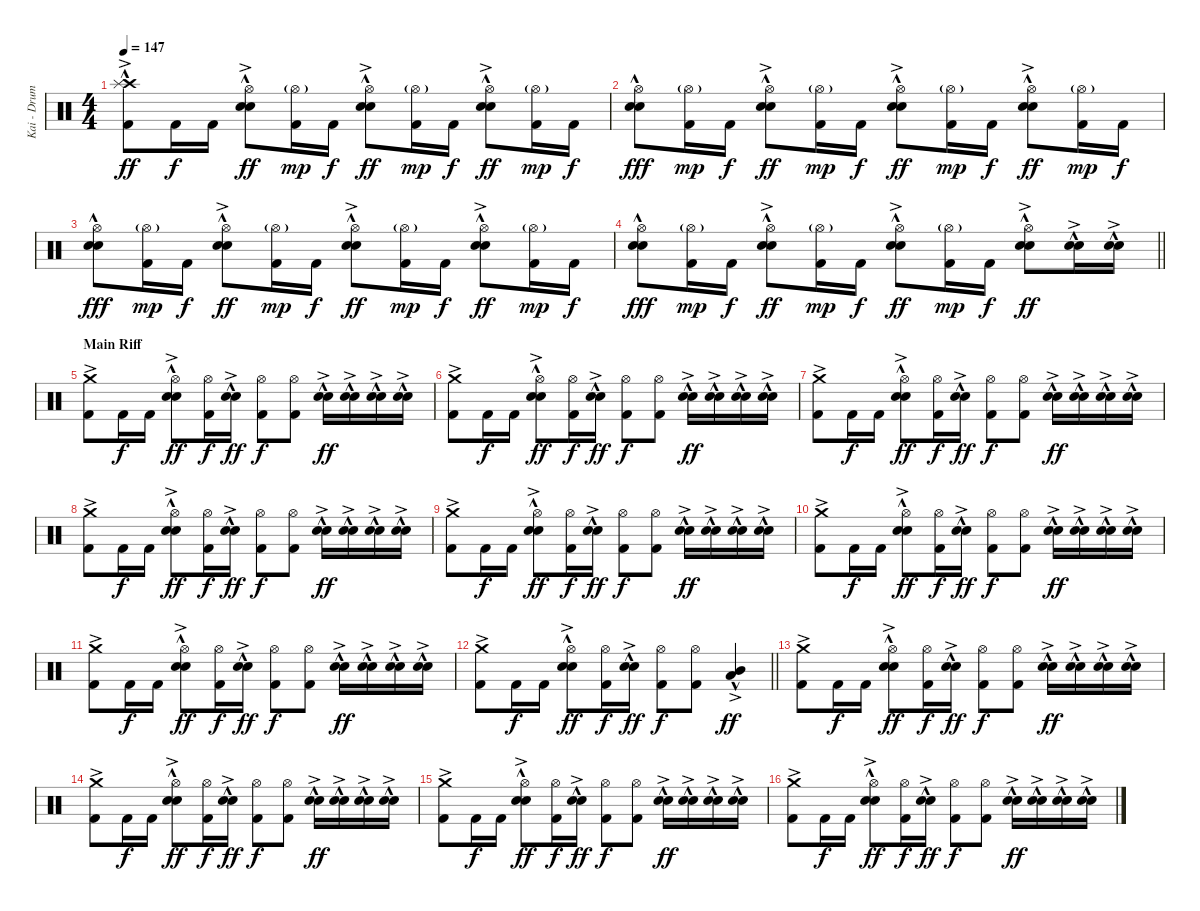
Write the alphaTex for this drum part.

\track ("Kai - Drums" "Kai - Drum") {instrument percussion}
\staff {score}
\articulation defaults
\ts (4 4)
\tempo 147
\clef neutral
\ks c
("Crash high (hit)"{hac} "Splash (hit)"{ac} "Kick (hit) 2").8{dy ff} "Kick (hit) 2".16{dy f} "Kick (hit) 2".16 ("Hi-Hat (open)" "Electric Snare (hit)"{hac} "Snare (hit) 2"{ac}).8{dy ff} ("Hi-Hat (open)"{g} "Kick (hit) 2").16{dy mp} "Kick (hit) 2".16{dy f} ("Hi-Hat (open)" "Electric Snare (hit)"{hac} "Snare (hit) 2"{ac}).8{dy ff} ("Hi-Hat (open)"{g} "Kick (hit) 2").16{dy mp} "Kick (hit) 2".16{dy f} ("Hi-Hat (open)" "Electric Snare (hit)"{hac} "Snare (hit) 2"{ac}).8{dy ff} ("Hi-Hat (open)"{g} "Kick (hit) 2").16{dy mp} "Kick (hit) 2".16{dy f} |
("Hi-Hat (open)" "Electric Snare (hit)"{hac} "Snare (hit) 2").8{dy fff} ("Hi-Hat (open)"{g} "Kick (hit) 2").16{dy mp} "Kick (hit) 2".16{dy f} ("Hi-Hat (open)" "Electric Snare (hit)"{hac} "Snare (hit) 2"{ac}).8{dy ff} ("Hi-Hat (open)"{g} "Kick (hit) 2").16{dy mp} "Kick (hit) 2".16{dy f} ("Hi-Hat (open)" "Electric Snare (hit)"{hac} "Snare (hit) 2"{ac}).8{dy ff} ("Hi-Hat (open)"{g} "Kick (hit) 2").16{dy mp} "Kick (hit) 2".16{dy f} ("Hi-Hat (open)" "Electric Snare (hit)"{hac} "Snare (hit) 2"{ac}).8{dy ff} ("Hi-Hat (open)"{g} "Kick (hit) 2").16{dy mp} "Kick (hit) 2".16{dy f} |
("Hi-Hat (open)" "Electric Snare (hit)"{hac} "Snare (hit) 2").8{dy fff} ("Hi-Hat (open)"{g} "Kick (hit) 2").16{dy mp} "Kick (hit) 2".16{dy f} ("Hi-Hat (open)" "Electric Snare (hit)"{hac} "Snare (hit) 2"{ac}).8{dy ff} ("Hi-Hat (open)"{g} "Kick (hit) 2").16{dy mp} "Kick (hit) 2".16{dy f} ("Hi-Hat (open)" "Electric Snare (hit)"{hac} "Snare (hit) 2"{ac}).8{dy ff} ("Hi-Hat (open)"{g} "Kick (hit) 2").16{dy mp} "Kick (hit) 2".16{dy f} ("Hi-Hat (open)" "Electric Snare (hit)"{hac} "Snare (hit) 2"{ac}).8{dy ff} ("Hi-Hat (open)"{g} "Kick (hit) 2").16{dy mp} "Kick (hit) 2".16{dy f} |
\barLineRight lightlight
("Hi-Hat (open)" "Electric Snare (hit)"{hac} "Snare (hit) 2").8{dy fff} ("Hi-Hat (open)"{g} "Kick (hit) 2").16{dy mp} "Kick (hit) 2".16{dy f} ("Hi-Hat (open)" "Electric Snare (hit)"{hac} "Snare (hit) 2"{ac}).8{dy ff} ("Hi-Hat (open)"{g} "Kick (hit) 2").16{dy mp} "Kick (hit) 2".16{dy f} ("Hi-Hat (open)" "Electric Snare (hit)"{hac} "Snare (hit) 2"{ac}).8{dy ff} ("Hi-Hat (open)"{g} "Kick (hit) 2").16{dy mp} "Kick (hit) 2".16{dy f} ("Hi-Hat (open)" "Electric Snare (hit)"{hac} "Snare (hit) 2"{ac}).8{dy ff} ("Electric Snare (hit)"{hac} "Snare (hit) 2"{ac}).16 ("Electric Snare (hit)"{hac} "Snare (hit) 2"{ac}).16 |
\section ("" "Main Riff")
("Crash medium (hit)"{ac} "Kick (hit) 2").8 "Kick (hit) 2".16{dy f} "Kick (hit) 2".16 ("Hi-Hat (open)" "Electric Snare (hit)"{hac} "Snare (hit) 2"{ac}).8{dy ff} ("Hi-Hat (open)" "Kick (hit) 2").16{dy f} ("Electric Snare (hit)"{hac} "Snare (hit) 2"{ac}).16{dy ff} ("Hi-Hat (open)" "Kick (hit) 2").8{dy f} ("Hi-Hat (open)" "Kick (hit) 2").8 ("Electric Snare (hit)"{hac} "Snare (hit) 2"{ac}).16{dy ff} ("Electric Snare (hit)"{hac} "Snare (hit) 2"{ac}).16 ("Electric Snare (hit)"{hac} "Snare (hit) 2"{ac}).16 ("Electric Snare (hit)"{hac} "Snare (hit) 2"{ac}).16 |
("Crash medium (hit)"{ac} "Kick (hit) 2").8 "Kick (hit) 2".16{dy f} "Kick (hit) 2".16 ("Hi-Hat (open)" "Electric Snare (hit)"{hac} "Snare (hit) 2"{ac}).8{dy ff} ("Hi-Hat (open)" "Kick (hit) 2").16{dy f} ("Electric Snare (hit)"{hac} "Snare (hit) 2"{ac}).16{dy ff} ("Hi-Hat (open)" "Kick (hit) 2").8{dy f} ("Hi-Hat (open)" "Kick (hit) 2").8 ("Electric Snare (hit)"{hac} "Snare (hit) 2"{ac}).16{dy ff} ("Electric Snare (hit)"{hac} "Snare (hit) 2"{ac}).16 ("Electric Snare (hit)"{hac} "Snare (hit) 2"{ac}).16 ("Electric Snare (hit)"{hac} "Snare (hit) 2"{ac}).16 |
("Crash medium (hit)"{ac} "Kick (hit) 2").8 "Kick (hit) 2".16{dy f} "Kick (hit) 2".16 ("Hi-Hat (open)" "Electric Snare (hit)"{hac} "Snare (hit) 2"{ac}).8{dy ff} ("Hi-Hat (open)" "Kick (hit) 2").16{dy f} ("Electric Snare (hit)"{hac} "Snare (hit) 2"{ac}).16{dy ff} ("Hi-Hat (open)" "Kick (hit) 2").8{dy f} ("Hi-Hat (open)" "Kick (hit) 2").8 ("Electric Snare (hit)"{hac} "Snare (hit) 2"{ac}).16{dy ff} ("Electric Snare (hit)"{hac} "Snare (hit) 2"{ac}).16 ("Electric Snare (hit)"{hac} "Snare (hit) 2"{ac}).16 ("Electric Snare (hit)"{hac} "Snare (hit) 2"{ac}).16 |
("Crash medium (hit)"{ac} "Kick (hit) 2").8 "Kick (hit) 2".16{dy f} "Kick (hit) 2".16 ("Hi-Hat (open)" "Electric Snare (hit)"{hac} "Snare (hit) 2"{ac}).8{dy ff} ("Hi-Hat (open)" "Kick (hit) 2").16{dy f} ("Electric Snare (hit)"{hac} "Snare (hit) 2"{ac}).16{dy ff} ("Hi-Hat (open)" "Kick (hit) 2").8{dy f} ("Hi-Hat (open)" "Kick (hit) 2").8 ("Electric Snare (hit)"{hac} "Snare (hit) 2"{ac}).16{dy ff} ("Electric Snare (hit)"{hac} "Snare (hit) 2"{ac}).16 ("Electric Snare (hit)"{hac} "Snare (hit) 2"{ac}).16 ("Electric Snare (hit)"{hac} "Snare (hit) 2"{ac}).16 |
("Crash medium (hit)"{ac} "Kick (hit) 2").8 "Kick (hit) 2".16{dy f} "Kick (hit) 2".16 ("Hi-Hat (open)" "Electric Snare (hit)"{hac} "Snare (hit) 2"{ac}).8{dy ff} ("Hi-Hat (open)" "Kick (hit) 2").16{dy f} ("Electric Snare (hit)"{hac} "Snare (hit) 2"{ac}).16{dy ff} ("Hi-Hat (open)" "Kick (hit) 2").8{dy f} ("Hi-Hat (open)" "Kick (hit) 2").8 ("Electric Snare (hit)"{hac} "Snare (hit) 2"{ac}).16{dy ff} ("Electric Snare (hit)"{hac} "Snare (hit) 2"{ac}).16 ("Electric Snare (hit)"{hac} "Snare (hit) 2"{ac}).16 ("Electric Snare (hit)"{hac} "Snare (hit) 2"{ac}).16 |
("Crash medium (hit)"{ac} "Kick (hit) 2").8 "Kick (hit) 2".16{dy f} "Kick (hit) 2".16 ("Hi-Hat (open)" "Electric Snare (hit)"{hac} "Snare (hit) 2"{ac}).8{dy ff} ("Hi-Hat (open)" "Kick (hit) 2").16{dy f} ("Electric Snare (hit)"{hac} "Snare (hit) 2"{ac}).16{dy ff} ("Hi-Hat (open)" "Kick (hit) 2").8{dy f} ("Hi-Hat (open)" "Kick (hit) 2").8 ("Electric Snare (hit)"{hac} "Snare (hit) 2"{ac}).16{dy ff} ("Electric Snare (hit)"{hac} "Snare (hit) 2"{ac}).16 ("Electric Snare (hit)"{hac} "Snare (hit) 2"{ac}).16 ("Electric Snare (hit)"{hac} "Snare (hit) 2"{ac}).16 |
("Crash medium (hit)"{ac} "Kick (hit) 2").8 "Kick (hit) 2".16{dy f} "Kick (hit) 2".16 ("Hi-Hat (open)" "Electric Snare (hit)"{hac} "Snare (hit) 2"{ac}).8{dy ff} ("Hi-Hat (open)" "Kick (hit) 2").16{dy f} ("Electric Snare (hit)"{hac} "Snare (hit) 2"{ac}).16{dy ff} ("Hi-Hat (open)" "Kick (hit) 2").8{dy f} ("Hi-Hat (open)" "Kick (hit) 2").8 ("Electric Snare (hit)"{hac} "Snare (hit) 2"{ac}).16{dy ff} ("Electric Snare (hit)"{hac} "Snare (hit) 2"{ac}).16 ("Electric Snare (hit)"{hac} "Snare (hit) 2"{ac}).16 ("Electric Snare (hit)"{hac} "Snare (hit) 2"{ac}).16 |
\barLineRight lightlight
("Crash medium (hit)"{ac} "Kick (hit) 2").8 "Kick (hit) 2".16{dy f} "Kick (hit) 2".16 ("Hi-Hat (open)" "Electric Snare (hit)"{hac} "Snare (hit) 2"{ac}).8{dy ff} ("Hi-Hat (open)" "Kick (hit) 2").16{dy f} ("Electric Snare (hit)"{hac} "Snare (hit) 2"{ac}).16{dy ff} ("Hi-Hat (open)" "Kick (hit) 2").8{dy f} ("Hi-Hat (open)" "Kick (hit) 2").8 ("Mid Tom (hit)"{hac} "Low Tom (hit)"{ac}).4{dy ff} |
\section ("" "")
("Crash medium (hit)"{ac} "Kick (hit) 2").8 "Kick (hit) 2".16{dy f} "Kick (hit) 2".16 ("Hi-Hat (open)" "Electric Snare (hit)"{hac} "Snare (hit) 2"{ac}).8{dy ff} ("Hi-Hat (open)" "Kick (hit) 2").16{dy f} ("Electric Snare (hit)"{hac} "Snare (hit) 2"{ac}).16{dy ff} ("Hi-Hat (open)" "Kick (hit) 2").8{dy f} ("Hi-Hat (open)" "Kick (hit) 2").8 ("Electric Snare (hit)"{hac} "Snare (hit) 2"{ac}).16{dy ff} ("Electric Snare (hit)"{hac} "Snare (hit) 2"{ac}).16 ("Electric Snare (hit)"{hac} "Snare (hit) 2"{ac}).16 ("Electric Snare (hit)"{hac} "Snare (hit) 2"{ac}).16 |
("Crash medium (hit)"{ac} "Kick (hit) 2").8 "Kick (hit) 2".16{dy f} "Kick (hit) 2".16 ("Hi-Hat (open)" "Electric Snare (hit)"{hac} "Snare (hit) 2"{ac}).8{dy ff} ("Hi-Hat (open)" "Kick (hit) 2").16{dy f} ("Electric Snare (hit)"{hac} "Snare (hit) 2"{ac}).16{dy ff} ("Hi-Hat (open)" "Kick (hit) 2").8{dy f} ("Hi-Hat (open)" "Kick (hit) 2").8 ("Electric Snare (hit)"{hac} "Snare (hit) 2"{ac}).16{dy ff} ("Electric Snare (hit)"{hac} "Snare (hit) 2"{ac}).16 ("Electric Snare (hit)"{hac} "Snare (hit) 2"{ac}).16 ("Electric Snare (hit)"{hac} "Snare (hit) 2"{ac}).16 |
("Crash medium (hit)"{ac} "Kick (hit) 2").8 "Kick (hit) 2".16{dy f} "Kick (hit) 2".16 ("Hi-Hat (open)" "Electric Snare (hit)"{hac} "Snare (hit) 2"{ac}).8{dy ff} ("Hi-Hat (open)" "Kick (hit) 2").16{dy f} ("Electric Snare (hit)"{hac} "Snare (hit) 2"{ac}).16{dy ff} ("Hi-Hat (open)" "Kick (hit) 2").8{dy f} ("Hi-Hat (open)" "Kick (hit) 2").8 ("Electric Snare (hit)"{hac} "Snare (hit) 2"{ac}).16{dy ff} ("Electric Snare (hit)"{hac} "Snare (hit) 2"{ac}).16 ("Electric Snare (hit)"{hac} "Snare (hit) 2"{ac}).16 ("Electric Snare (hit)"{hac} "Snare (hit) 2"{ac}).16 |
("Crash medium (hit)"{ac} "Kick (hit) 2").8 "Kick (hit) 2".16{dy f} "Kick (hit) 2".16 ("Hi-Hat (open)" "Electric Snare (hit)"{hac} "Snare (hit) 2"{ac}).8{dy ff} ("Hi-Hat (open)" "Kick (hit) 2").16{dy f} ("Electric Snare (hit)"{hac} "Snare (hit) 2"{ac}).16{dy ff} ("Hi-Hat (open)" "Kick (hit) 2").8{dy f} ("Hi-Hat (open)" "Kick (hit) 2").8 ("Electric Snare (hit)"{hac} "Snare (hit) 2"{ac}).16{dy ff} ("Electric Snare (hit)"{hac} "Snare (hit) 2"{ac}).16 ("Electric Snare (hit)"{hac} "Snare (hit) 2"{ac}).16 ("Electric Snare (hit)"{hac} "Snare (hit) 2"{ac}).16
